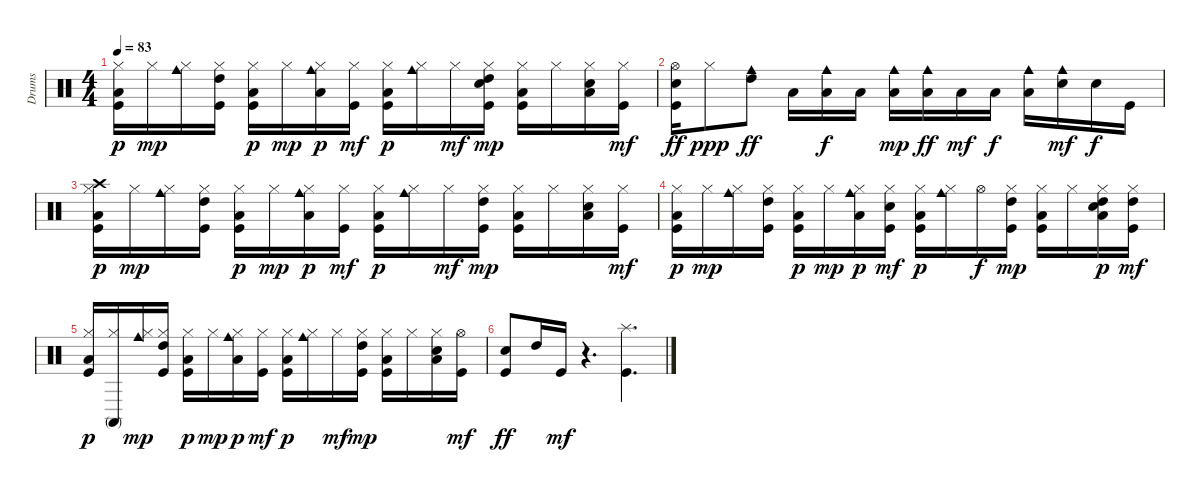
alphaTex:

\track ("Drums" "Drums") {instrument percussion}
\staff {score}
\articulation defaults
\ts (4 4)
\tempo 83
\clef neutral
\ks c
("Kick (hit)" "Hi-Hat (closed)" "Low Tom (hit)").16{dy p} "Hi-Hat (closed)".16{dy mp} ("Hi-Hat (closed)" "Cowbell medium (hit)").16 ("Kick (hit)" "Hi-Hat (closed)" "High Tom (hit)").16 ("Kick (hit)" "Hi-Hat (closed)" "Low Tom (hit)").16{dy p} "Hi-Hat (closed)".16{dy mp} ("Hi-Hat (closed)" "Cowbell medium (hit)" "Low Floor Tom (hit)").16{dy p} ("Kick (hit)" "Hi-Hat (closed)").16{dy mf} ("Kick (hit)" "Hi-Hat (closed)" "Low Tom (hit)").16{dy p} ("Hi-Hat (closed)" "Cowbell medium (hit)").16 "Hi-Hat (closed)".16{dy mf} ("Kick (hit)" "Snare (hit) 2" "Hi-Hat (closed)" "High Tom (hit)").16{dy mp} ("Kick (hit)" "Hi-Hat (closed)" "Low Tom (hit)").16 "Hi-Hat (closed)".16 ("Snare (hit) 2" "Hi-Hat (closed)" "Low Floor Tom (hit)").16 ("Kick (hit)" "Hi-Hat (closed)").16{dy mf} |
("Kick (hit)" "Snare (hit) 2" "Hi-Hat (open)").16{dy ff} "Hi-Hat (closed)".8{dy ppp} ("Cowbell medium (hit)" "High Tom (hit)").8{dy ff} "Low Tom (hit)".16 ("Cowbell medium (hit)" "Low Tom (hit)").16{dy f} "Low Tom (hit)".16 ("Cowbell medium (hit)" "Low Tom (hit)").16{dy mp} ("Cowbell medium (hit)" "Low Tom (hit)").16{dy ff} "Low Tom (hit)".16{dy mf} "Low Tom (hit)".16{dy f} ("Cowbell medium (hit)" "Low Floor Tom (hit)").16 ("Snare (hit) 2" "Cowbell medium (hit)").16{dy mf} "Snare (hit) 2".16{dy f} "Kick (hit)".16 |
("Kick (hit)" "Hi-Hat (closed)" "Low Tom (hit)" "Crash high (hit)").16{dy p} "Hi-Hat (closed)".16{dy mp} ("Hi-Hat (closed)" "Cowbell medium (hit)").16 ("Kick (hit)" "Hi-Hat (closed)" "High Tom (hit)").16 ("Kick (hit)" "Hi-Hat (closed)" "Low Tom (hit)").16{dy p} "Hi-Hat (closed)".16{dy mp} ("Hi-Hat (closed)" "Cowbell medium (hit)" "Low Floor Tom (hit)").16{dy p} ("Kick (hit)" "Hi-Hat (closed)").16{dy mf} ("Kick (hit)" "Hi-Hat (closed)" "Low Tom (hit)").16{dy p} ("Hi-Hat (closed)" "Cowbell medium (hit)").16 "Hi-Hat (closed)".16{dy mf} ("Kick (hit)" "Hi-Hat (closed)" "High Tom (hit)").16{dy mp} ("Kick (hit)" "Hi-Hat (closed)" "Low Tom (hit)").16 "Hi-Hat (closed)".16 ("Snare (hit) 2" "Hi-Hat (closed)" "Low Floor Tom (hit)").16 ("Kick (hit)" "Hi-Hat (closed)").16{dy mf} |
("Kick (hit)" "Hi-Hat (closed)" "Low Tom (hit)").16{dy p} "Hi-Hat (closed)".16{dy mp} ("Hi-Hat (closed)" "Cowbell medium (hit)").16 ("Kick (hit)" "Hi-Hat (closed)" "High Tom (hit)").16 ("Kick (hit)" "Hi-Hat (closed)" "Low Tom (hit)").16{dy p} "Hi-Hat (closed)".16{dy mp} ("Hi-Hat (closed)" "Cowbell medium (hit)" "Low Floor Tom (hit)").16{dy p} ("Kick (hit)" "Snare (hit) 2" "Hi-Hat (closed)").16{dy mf} ("Kick (hit)" "Hi-Hat (closed)" "Low Tom (hit)").16{dy p} ("Hi-Hat (closed)" "Cowbell medium (hit)").16 "Hi-Hat (open)".16{dy f} ("Kick (hit)" "Hi-Hat (closed)" "High Tom (hit)").16{dy mp} ("Kick (hit)" "Hi-Hat (closed)" "Low Tom (hit)").16 "Hi-Hat (closed)".16 ("Snare (hit) 2" "Hi-Hat (closed)" "High Tom (hit)" "Low Floor Tom (hit)").16{dy p} ("Kick (hit)" "Hi-Hat (closed)" "High Tom (hit)").16{dy mf} |
("Kick (hit)" "Hi-Hat (closed)" "Low Tom (hit)").16{dy p} ("Hi-Hat (closed)" "Conga high (mute)").16 ("Hi-Hat (closed)" "Cowbell medium (hit)").16{dy mp} ("Kick (hit)" "Hi-Hat (closed)" "High Tom (hit)").16 ("Kick (hit)" "Hi-Hat (closed)" "Low Tom (hit)").16{dy p} "Hi-Hat (closed)".16{dy mp} ("Hi-Hat (closed)" "Cowbell medium (hit)" "Low Floor Tom (hit)").16{dy p} ("Kick (hit)" "Hi-Hat (closed)").16{dy mf} ("Kick (hit)" "Hi-Hat (closed)" "Low Tom (hit)").16{dy p} ("Hi-Hat (closed)" "Cowbell medium (hit)").16 "Hi-Hat (closed)".16{dy mf} ("Kick (hit)" "Hi-Hat (closed)" "High Tom (hit)").16{dy mp} ("Kick (hit)" "Hi-Hat (closed)" "Low Tom (hit)").16 "Hi-Hat (closed)".16 ("Snare (hit) 2" "Hi-Hat (closed)" "Low Floor Tom (hit)").16 ("Kick (hit)" "Hi-Hat (open)").16{dy mf} |
("Kick (hit)" "Snare (hit) 2").8{dy ff} "High Tom (hit)".16 "Kick (hit)".16{dy mf} r.4{d} ("Kick (hit)" "Splash (hit)").4{d}
